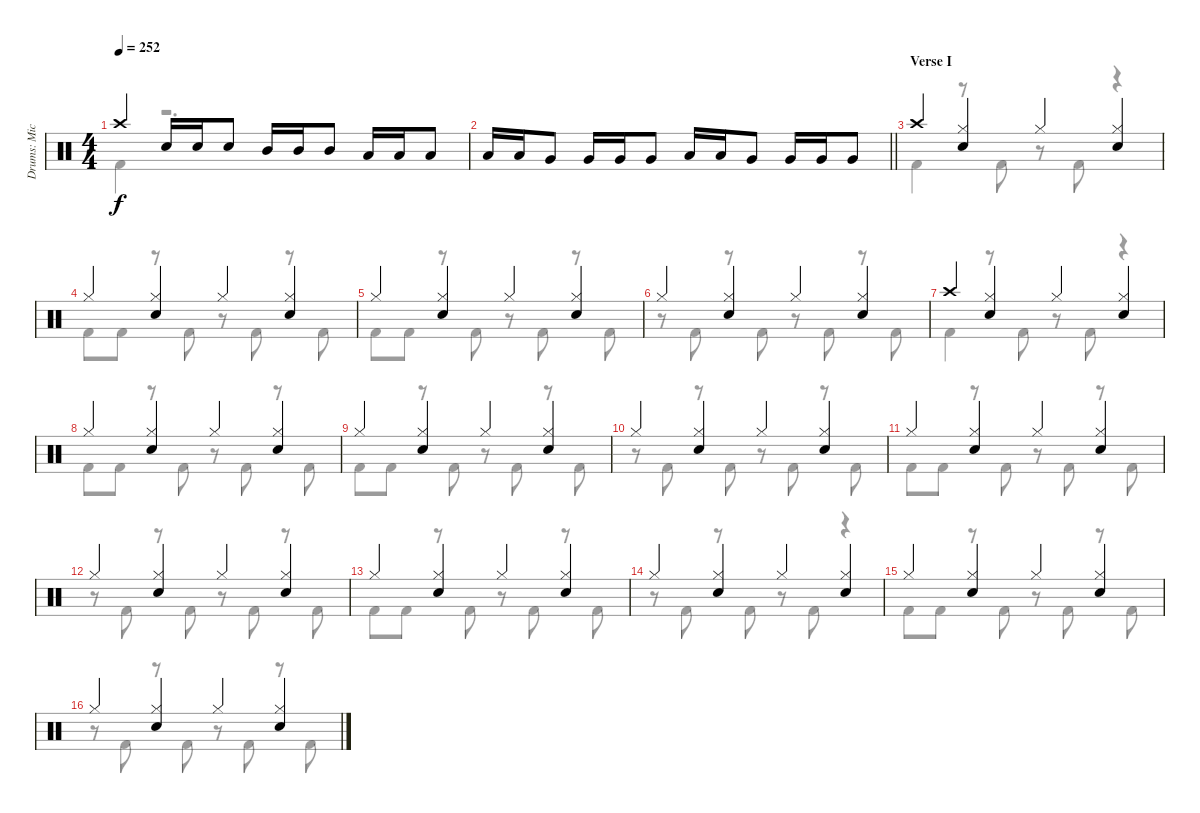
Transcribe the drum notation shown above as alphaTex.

\track ("Drums: Mick" "Drums: Mic") {instrument percussion}
\staff {score}
\articulation defaults
\voice
\ts (4 4)
\tempo 252
\clef neutral
\ks c "Crash high (hit)".4{dy f} "Snare (hit) 2".16 "Snare (hit) 2".16 "Snare (hit) 2".8 "Mid Tom (hit)".16 "Mid Tom (hit)".16 "Mid Tom (hit)".8 "Low Tom (hit)".16 "Low Tom (hit)".16 "Low Tom (hit)".8
|
\barLineRight lightlight "Low Tom (hit)".16 "Low Tom (hit)".16 "Very Low Tom (hit)".8 "Very Low Tom (hit)".16 "Very Low Tom (hit)".16 "Very Low Tom (hit)".8 "Low Tom (hit)".16 "Low Tom (hit)".16 "Very Low Tom (hit)".8 "Very Low Tom (hit)".16 "Very Low Tom (hit)".16 "Very Low Tom (hit)".8
|
\section ("" "Verse I")
"Crash high (hit)".4 ("Hi-Hat (closed)" "Snare (hit) 2").4 "Hi-Hat (closed)".4 ("Hi-Hat (closed)" "Snare (hit) 2").4 |
"Hi-Hat (closed)".4 ("Hi-Hat (closed)" "Snare (hit) 2").4 "Hi-Hat (closed)".4 ("Hi-Hat (closed)" "Snare (hit) 2").4 |
"Hi-Hat (closed)".4 ("Hi-Hat (closed)" "Snare (hit) 2").4 "Hi-Hat (closed)".4 ("Hi-Hat (closed)" "Snare (hit) 2").4 |
"Hi-Hat (closed)".4 ("Hi-Hat (closed)" "Snare (hit) 2").4 "Hi-Hat (closed)".4 ("Hi-Hat (closed)" "Snare (hit) 2").4 |
"Crash high (hit)".4 ("Hi-Hat (closed)" "Snare (hit) 2").4 "Hi-Hat (closed)".4 ("Hi-Hat (closed)" "Snare (hit) 2").4 |
"Hi-Hat (closed)".4 ("Hi-Hat (closed)" "Snare (hit) 2").4 "Hi-Hat (closed)".4 ("Hi-Hat (closed)" "Snare (hit) 2").4 |
"Hi-Hat (closed)".4 ("Hi-Hat (closed)" "Snare (hit) 2").4 "Hi-Hat (closed)".4 ("Hi-Hat (closed)" "Snare (hit) 2").4 |
"Hi-Hat (closed)".4 ("Hi-Hat (closed)" "Snare (hit) 2").4 "Hi-Hat (closed)".4 ("Hi-Hat (closed)" "Snare (hit) 2").4 |
"Hi-Hat (closed)".4 ("Hi-Hat (closed)" "Snare (hit) 2").4 "Hi-Hat (closed)".4 ("Hi-Hat (closed)" "Snare (hit) 2").4 |
"Hi-Hat (closed)".4 ("Hi-Hat (closed)" "Snare (hit) 2").4 "Hi-Hat (closed)".4 ("Hi-Hat (closed)" "Snare (hit) 2").4 |
"Hi-Hat (closed)".4 ("Hi-Hat (closed)" "Snare (hit) 2").4 "Hi-Hat (closed)".4 ("Hi-Hat (closed)" "Snare (hit) 2").4 |
"Hi-Hat (closed)".4 ("Hi-Hat (closed)" "Snare (hit) 2").4 "Hi-Hat (closed)".4 ("Hi-Hat (closed)" "Snare (hit) 2").4 |
"Hi-Hat (closed)".4 ("Hi-Hat (closed)" "Snare (hit) 2").4 "Hi-Hat (closed)".4 ("Hi-Hat (closed)" "Snare (hit) 2").4 |
"Hi-Hat (closed)".4 ("Hi-Hat (closed)" "Snare (hit) 2").4 "Hi-Hat (closed)".4 ("Hi-Hat (closed)" "Snare (hit) 2").4
\voice
\clef neutral
\ottava regular
\simile none
\ks c "Kick (hit) 2".4{dy f}
r.2{d} |
\barLineRight lightlight
|
"Kick (hit) 2".4 r.8 "Kick (hit) 2".8 r.8 "Kick (hit) 2".8 r.4 |
"Kick (hit) 2".8 "Kick (hit) 2".8 r.8 "Kick (hit) 2".8 r.8 "Kick (hit) 2".8 r.8 "Kick (hit) 2".8 |
"Kick (hit) 2".8 "Kick (hit) 2".8 r.8 "Kick (hit) 2".8 r.8 "Kick (hit) 2".8 r.8 "Kick (hit) 2".8 |
r.8 "Kick (hit) 2".8 r.8 "Kick (hit) 2".8 r.8 "Kick (hit) 2".8 r.8 "Kick (hit) 2".8 |
"Kick (hit) 2".4 r.8 "Kick (hit) 2".8 r.8 "Kick (hit) 2".8 r.4 |
"Kick (hit) 2".8 "Kick (hit) 2".8 r.8 "Kick (hit) 2".8 r.8 "Kick (hit) 2".8 r.8 "Kick (hit) 2".8 |
"Kick (hit) 2".8 "Kick (hit) 2".8 r.8 "Kick (hit) 2".8 r.8 "Kick (hit) 2".8 r.8 "Kick (hit) 2".8 |
r.8 "Kick (hit) 2".8 r.8 "Kick (hit) 2".8 r.8 "Kick (hit) 2".8 r.8 "Kick (hit) 2".8 |
"Kick (hit) 2".8 "Kick (hit) 2".8 r.8 "Kick (hit) 2".8 r.8 "Kick (hit) 2".8 r.8 "Kick (hit) 2".8 |
r.8 "Kick (hit) 2".8 r.8 "Kick (hit) 2".8 r.8 "Kick (hit) 2".8 r.8 "Kick (hit) 2".8 |
"Kick (hit) 2".8 "Kick (hit) 2".8 r.8 "Kick (hit) 2".8 r.8 "Kick (hit) 2".8 r.8 "Kick (hit) 2".8 |
r.8 "Kick (hit) 2".8 r.8 "Kick (hit) 2".8 r.8 "Kick (hit) 2".8 r.4 |
"Kick (hit) 2".8 "Kick (hit) 2".8 r.8 "Kick (hit) 2".8 r.8 "Kick (hit) 2".8 r.8 "Kick (hit) 2".8 |
r.8 "Kick (hit) 2".8 r.8 "Kick (hit) 2".8 r.8 "Kick (hit) 2".8 r.8 "Kick (hit) 2".8
